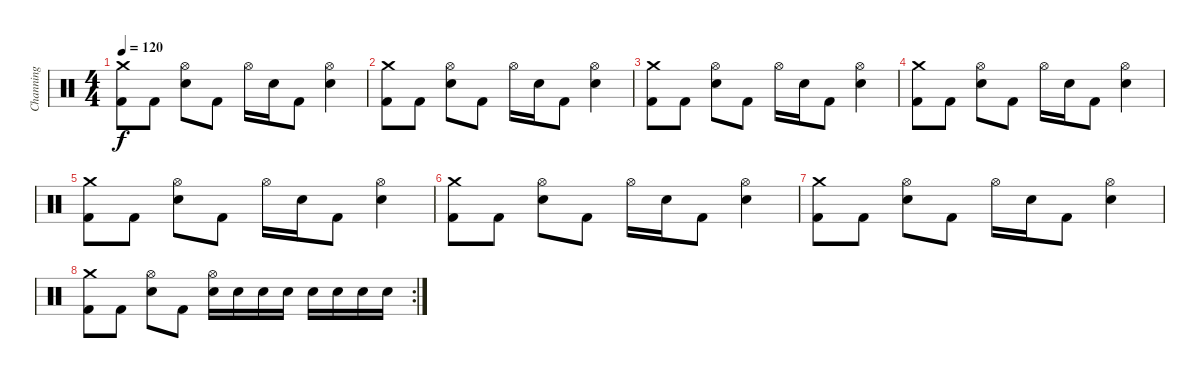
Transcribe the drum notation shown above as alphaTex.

\track ("Channing" "Channing") {instrument percussion}
\staff {score}
\articulation defaults
\ts (4 4)
\tempo 120
\clef neutral
\ks c
("Crash medium (hit)" "Kick (hit) 2").8{dy f} "Kick (hit) 2".8 ("Hi-Hat (open)" "Snare (hit) 2").8 "Kick (hit) 2".8 "Hi-Hat (open)".16 "Snare (hit) 2".16 "Kick (hit) 2".8 ("Hi-Hat (open)" "Snare (hit) 2").4 |
("Crash medium (hit)" "Kick (hit) 2").8 "Kick (hit) 2".8 ("Hi-Hat (open)" "Snare (hit) 2").8 "Kick (hit) 2".8 "Hi-Hat (open)".16 "Snare (hit) 2".16 "Kick (hit) 2".8 ("Hi-Hat (open)" "Snare (hit) 2").4 |
("Crash medium (hit)" "Kick (hit) 2").8 "Kick (hit) 2".8 ("Hi-Hat (open)" "Snare (hit) 2").8 "Kick (hit) 2".8 "Hi-Hat (open)".16 "Snare (hit) 2".16 "Kick (hit) 2".8 ("Hi-Hat (open)" "Snare (hit) 2").4 |
("Crash medium (hit)" "Kick (hit) 2").8 "Kick (hit) 2".8 ("Hi-Hat (open)" "Snare (hit) 2").8 "Kick (hit) 2".8 "Hi-Hat (open)".16 "Snare (hit) 2".16 "Kick (hit) 2".8 ("Hi-Hat (open)" "Snare (hit) 2").4 |
("Crash medium (hit)" "Kick (hit) 2").8 "Kick (hit) 2".8 ("Hi-Hat (open)" "Snare (hit) 2").8 "Kick (hit) 2".8 "Hi-Hat (open)".16 "Snare (hit) 2".16 "Kick (hit) 2".8 ("Hi-Hat (open)" "Snare (hit) 2").4 |
("Crash medium (hit)" "Kick (hit) 2").8 "Kick (hit) 2".8 ("Hi-Hat (open)" "Snare (hit) 2").8 "Kick (hit) 2".8 "Hi-Hat (open)".16 "Snare (hit) 2".16 "Kick (hit) 2".8 ("Hi-Hat (open)" "Snare (hit) 2").4 |
("Crash medium (hit)" "Kick (hit) 2").8 "Kick (hit) 2".8 ("Hi-Hat (open)" "Snare (hit) 2").8 "Kick (hit) 2".8 "Hi-Hat (open)".16 "Snare (hit) 2".16 "Kick (hit) 2".8 ("Hi-Hat (open)" "Snare (hit) 2").4 |
\rc 2
("Crash medium (hit)" "Kick (hit) 2").8 "Kick (hit) 2".8 ("Hi-Hat (open)" "Snare (hit) 2").8 "Kick (hit) 2".8 ("Hi-Hat (open)" "Snare (hit) 2").16 "Snare (hit) 2".16 "Snare (hit) 2".16 "Snare (hit) 2".16 "Snare (hit) 2".16 "Snare (hit) 2".16 "Snare (hit) 2".16 "Snare (hit) 2".16
